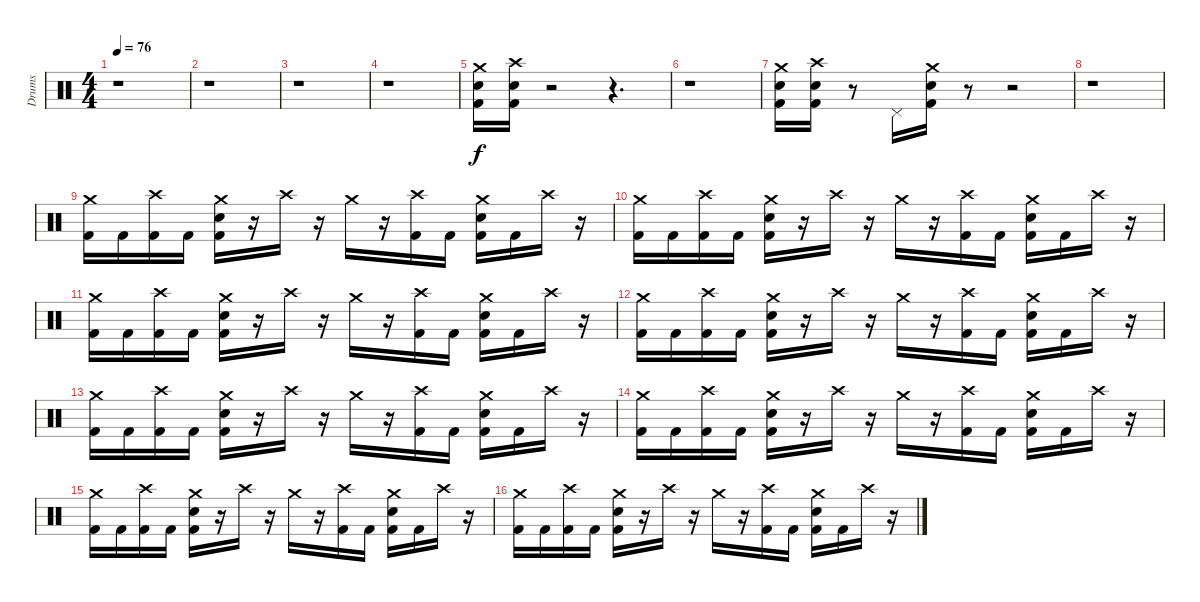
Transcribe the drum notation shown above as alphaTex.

\track ("Drums" "Drums") {instrument percussion}
\staff {score}
\articulation defaults
\ts (4 4)
\tempo 76
\clef neutral
\ks c
r.1{dy f} |
r.1 |
r.1 |
r.1 |
("Crash medium (hit)" "Electric Snare (hit)" "Kick (hit) 2").16 ("Crash high (hit)" "Electric Snare (hit)" "Kick (hit) 2").16 r.2 r.4{d} |
r.1 |
("Crash medium (hit)" "Electric Snare (hit)" "Kick (hit) 2").16 ("Crash high (hit)" "Electric Snare (hit)" "Kick (hit) 2").16 r.8 "Pedal Hi-Hat (hit)".16 ("Crash medium (hit)" "Electric Snare (hit)" "Kick (hit) 2").16 r.8 r.2 |
r.1 |
\section ("" "")
("Crash medium (hit)" "Kick (hit) 2").16 "Kick (hit) 2".16 ("Crash high (hit)" "Kick (hit) 2").16 "Kick (hit) 2".16 ("Crash medium (hit)" "Electric Snare (hit)" "Kick (hit) 2").16 r.16 "Crash high (hit)".16 r.16 "Crash medium (hit)".16 r.16 ("Crash high (hit)" "Kick (hit) 2").16 "Kick (hit) 2".16 ("Crash medium (hit)" "Electric Snare (hit)" "Kick (hit) 2").16 "Kick (hit) 2".16 "Crash high (hit)".16 r.16 |
("Crash medium (hit)" "Kick (hit) 2").16 "Kick (hit) 2".16 ("Crash high (hit)" "Kick (hit) 2").16 "Kick (hit) 2".16 ("Crash medium (hit)" "Electric Snare (hit)" "Kick (hit) 2").16 r.16 "Crash high (hit)".16 r.16 "Crash medium (hit)".16 r.16 ("Crash high (hit)" "Kick (hit) 2").16 "Kick (hit) 2".16 ("Crash medium (hit)" "Electric Snare (hit)" "Kick (hit) 2").16 "Kick (hit) 2".16 "Crash high (hit)".16 r.16 |
("Crash medium (hit)" "Kick (hit) 2").16 "Kick (hit) 2".16 ("Crash high (hit)" "Kick (hit) 2").16 "Kick (hit) 2".16 ("Crash medium (hit)" "Electric Snare (hit)" "Kick (hit) 2").16 r.16 "Crash high (hit)".16 r.16 "Crash medium (hit)".16 r.16 ("Crash high (hit)" "Kick (hit) 2").16 "Kick (hit) 2".16 ("Crash medium (hit)" "Electric Snare (hit)" "Kick (hit) 2").16 "Kick (hit) 2".16 "Crash high (hit)".16 r.16 |
("Crash medium (hit)" "Kick (hit) 2").16 "Kick (hit) 2".16 ("Crash high (hit)" "Kick (hit) 2").16 "Kick (hit) 2".16 ("Crash medium (hit)" "Electric Snare (hit)" "Kick (hit) 2").16 r.16 "Crash high (hit)".16 r.16 "Crash medium (hit)".16 r.16 ("Crash high (hit)" "Kick (hit) 2").16 "Kick (hit) 2".16 ("Crash medium (hit)" "Electric Snare (hit)" "Kick (hit) 2").16 "Kick (hit) 2".16 "Crash high (hit)".16 r.16 |
("Crash medium (hit)" "Kick (hit) 2").16 "Kick (hit) 2".16 ("Crash high (hit)" "Kick (hit) 2").16 "Kick (hit) 2".16 ("Crash medium (hit)" "Electric Snare (hit)" "Kick (hit) 2").16 r.16 "Crash high (hit)".16 r.16 "Crash medium (hit)".16 r.16 ("Crash high (hit)" "Kick (hit) 2").16 "Kick (hit) 2".16 ("Crash medium (hit)" "Electric Snare (hit)" "Kick (hit) 2").16 "Kick (hit) 2".16 "Crash high (hit)".16 r.16 |
("Crash medium (hit)" "Kick (hit) 2").16 "Kick (hit) 2".16 ("Crash high (hit)" "Kick (hit) 2").16 "Kick (hit) 2".16 ("Crash medium (hit)" "Electric Snare (hit)" "Kick (hit) 2").16 r.16 "Crash high (hit)".16 r.16 "Crash medium (hit)".16 r.16 ("Crash high (hit)" "Kick (hit) 2").16 "Kick (hit) 2".16 ("Crash medium (hit)" "Electric Snare (hit)" "Kick (hit) 2").16 "Kick (hit) 2".16 "Crash high (hit)".16 r.16 |
("Crash medium (hit)" "Kick (hit) 2").16 "Kick (hit) 2".16 ("Crash high (hit)" "Kick (hit) 2").16 "Kick (hit) 2".16 ("Crash medium (hit)" "Electric Snare (hit)" "Kick (hit) 2").16 r.16 "Crash high (hit)".16 r.16 "Crash medium (hit)".16 r.16 ("Crash high (hit)" "Kick (hit) 2").16 "Kick (hit) 2".16 ("Crash medium (hit)" "Electric Snare (hit)" "Kick (hit) 2").16 "Kick (hit) 2".16 "Crash high (hit)".16 r.16 |
("Crash medium (hit)" "Kick (hit) 2").16 "Kick (hit) 2".16 ("Crash high (hit)" "Kick (hit) 2").16 "Kick (hit) 2".16 ("Crash medium (hit)" "Electric Snare (hit)" "Kick (hit) 2").16 r.16 "Crash high (hit)".16 r.16 "Crash medium (hit)".16 r.16 ("Crash high (hit)" "Kick (hit) 2").16 "Kick (hit) 2".16 ("Crash medium (hit)" "Electric Snare (hit)" "Kick (hit) 2").16 "Kick (hit) 2".16 "Crash high (hit)".16 r.16
